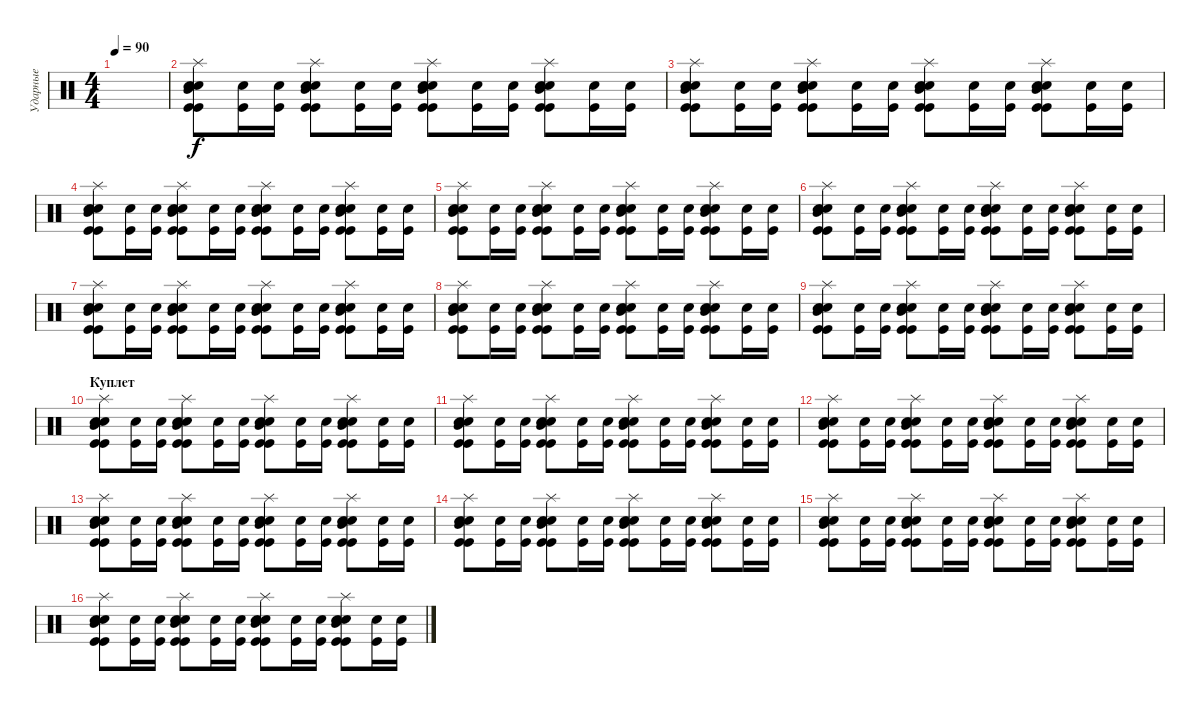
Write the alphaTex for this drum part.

\track ("Ударные" "Ударные") {instrument percussion}
\staff {score}
\articulation defaults
\ts (4 4)
\tempo 90
\clef neutral
\ks c
|
("Kick (hit)" "Kick (hit)" "Mid Tom (hit)" "Electric Snare (hit)" "Snare (hit) 2" "Splash (hit)").8 ("Snare (hit) 2" "Kick (hit)").16 ("Snare (hit) 2" "Kick (hit)").16 ("Kick (hit)" "Kick (hit)" "Mid Tom (hit)" "Electric Snare (hit)" "Snare (hit) 2" "Splash (hit)").8 ("Snare (hit) 2" "Kick (hit)").16 ("Snare (hit) 2" "Kick (hit)").16 ("Kick (hit)" "Kick (hit)" "Mid Tom (hit)" "Electric Snare (hit)" "Snare (hit) 2" "Splash (hit)").8 ("Snare (hit) 2" "Kick (hit)").16 ("Snare (hit) 2" "Kick (hit)").16 ("Kick (hit)" "Kick (hit)" "Mid Tom (hit)" "Electric Snare (hit)" "Snare (hit) 2" "Splash (hit)").8 ("Snare (hit) 2" "Kick (hit)").16 ("Snare (hit) 2" "Kick (hit)").16 |
("Kick (hit)" "Kick (hit)" "Mid Tom (hit)" "Electric Snare (hit)" "Snare (hit) 2" "Splash (hit)").8 ("Snare (hit) 2" "Kick (hit)").16 ("Snare (hit) 2" "Kick (hit)").16 ("Kick (hit)" "Kick (hit)" "Mid Tom (hit)" "Electric Snare (hit)" "Snare (hit) 2" "Splash (hit)").8 ("Snare (hit) 2" "Kick (hit)").16 ("Snare (hit) 2" "Kick (hit)").16 ("Kick (hit)" "Kick (hit)" "Mid Tom (hit)" "Electric Snare (hit)" "Snare (hit) 2" "Splash (hit)").8 ("Snare (hit) 2" "Kick (hit)").16 ("Snare (hit) 2" "Kick (hit)").16 ("Kick (hit)" "Kick (hit)" "Mid Tom (hit)" "Electric Snare (hit)" "Snare (hit) 2" "Splash (hit)").8 ("Snare (hit) 2" "Kick (hit)").16 ("Snare (hit) 2" "Kick (hit)").16 |
("Kick (hit)" "Kick (hit)" "Mid Tom (hit)" "Electric Snare (hit)" "Snare (hit) 2" "Splash (hit)").8 ("Snare (hit) 2" "Kick (hit)").16 ("Snare (hit) 2" "Kick (hit)").16 ("Kick (hit)" "Kick (hit)" "Mid Tom (hit)" "Electric Snare (hit)" "Snare (hit) 2" "Splash (hit)").8 ("Snare (hit) 2" "Kick (hit)").16 ("Snare (hit) 2" "Kick (hit)").16 ("Kick (hit)" "Kick (hit)" "Mid Tom (hit)" "Electric Snare (hit)" "Snare (hit) 2" "Splash (hit)").8 ("Snare (hit) 2" "Kick (hit)").16 ("Snare (hit) 2" "Kick (hit)").16 ("Kick (hit)" "Kick (hit)" "Mid Tom (hit)" "Electric Snare (hit)" "Snare (hit) 2" "Splash (hit)").8 ("Snare (hit) 2" "Kick (hit)").16 ("Snare (hit) 2" "Kick (hit)").16 |
("Kick (hit)" "Kick (hit)" "Mid Tom (hit)" "Electric Snare (hit)" "Snare (hit) 2" "Splash (hit)").8 ("Snare (hit) 2" "Kick (hit)").16 ("Snare (hit) 2" "Kick (hit)").16 ("Kick (hit)" "Kick (hit)" "Mid Tom (hit)" "Electric Snare (hit)" "Snare (hit) 2" "Splash (hit)").8 ("Snare (hit) 2" "Kick (hit)").16 ("Snare (hit) 2" "Kick (hit)").16 ("Kick (hit)" "Kick (hit)" "Mid Tom (hit)" "Electric Snare (hit)" "Snare (hit) 2" "Splash (hit)").8 ("Snare (hit) 2" "Kick (hit)").16 ("Snare (hit) 2" "Kick (hit)").16 ("Kick (hit)" "Kick (hit)" "Mid Tom (hit)" "Electric Snare (hit)" "Snare (hit) 2" "Splash (hit)").8 ("Snare (hit) 2" "Kick (hit)").16 ("Snare (hit) 2" "Kick (hit)").16 |
("Kick (hit)" "Kick (hit)" "Mid Tom (hit)" "Electric Snare (hit)" "Snare (hit) 2" "Splash (hit)").8 ("Snare (hit) 2" "Kick (hit)").16 ("Snare (hit) 2" "Kick (hit)").16 ("Kick (hit)" "Kick (hit)" "Mid Tom (hit)" "Electric Snare (hit)" "Snare (hit) 2" "Splash (hit)").8 ("Snare (hit) 2" "Kick (hit)").16 ("Snare (hit) 2" "Kick (hit)").16 ("Kick (hit)" "Kick (hit)" "Mid Tom (hit)" "Electric Snare (hit)" "Snare (hit) 2" "Splash (hit)").8 ("Snare (hit) 2" "Kick (hit)").16 ("Snare (hit) 2" "Kick (hit)").16 ("Kick (hit)" "Kick (hit)" "Mid Tom (hit)" "Electric Snare (hit)" "Snare (hit) 2" "Splash (hit)").8 ("Snare (hit) 2" "Kick (hit)").16 ("Snare (hit) 2" "Kick (hit)").16 |
("Kick (hit)" "Kick (hit)" "Mid Tom (hit)" "Electric Snare (hit)" "Snare (hit) 2" "Splash (hit)").8 ("Snare (hit) 2" "Kick (hit)").16 ("Snare (hit) 2" "Kick (hit)").16 ("Kick (hit)" "Kick (hit)" "Mid Tom (hit)" "Electric Snare (hit)" "Snare (hit) 2" "Splash (hit)").8 ("Snare (hit) 2" "Kick (hit)").16 ("Snare (hit) 2" "Kick (hit)").16 ("Kick (hit)" "Kick (hit)" "Mid Tom (hit)" "Electric Snare (hit)" "Snare (hit) 2" "Splash (hit)").8 ("Snare (hit) 2" "Kick (hit)").16 ("Snare (hit) 2" "Kick (hit)").16 ("Kick (hit)" "Kick (hit)" "Mid Tom (hit)" "Electric Snare (hit)" "Snare (hit) 2" "Splash (hit)").8 ("Snare (hit) 2" "Kick (hit)").16 ("Snare (hit) 2" "Kick (hit)").16 |
("Kick (hit)" "Kick (hit)" "Mid Tom (hit)" "Electric Snare (hit)" "Snare (hit) 2" "Splash (hit)").8 ("Snare (hit) 2" "Kick (hit)").16 ("Snare (hit) 2" "Kick (hit)").16 ("Kick (hit)" "Kick (hit)" "Mid Tom (hit)" "Electric Snare (hit)" "Snare (hit) 2" "Splash (hit)").8 ("Snare (hit) 2" "Kick (hit)").16 ("Snare (hit) 2" "Kick (hit)").16 ("Kick (hit)" "Kick (hit)" "Mid Tom (hit)" "Electric Snare (hit)" "Snare (hit) 2" "Splash (hit)").8 ("Snare (hit) 2" "Kick (hit)").16 ("Snare (hit) 2" "Kick (hit)").16 ("Kick (hit)" "Kick (hit)" "Mid Tom (hit)" "Electric Snare (hit)" "Snare (hit) 2" "Splash (hit)").8 ("Snare (hit) 2" "Kick (hit)").16 ("Snare (hit) 2" "Kick (hit)").16 |
("Kick (hit)" "Kick (hit)" "Mid Tom (hit)" "Electric Snare (hit)" "Snare (hit) 2" "Splash (hit)").8 ("Snare (hit) 2" "Kick (hit)").16 ("Snare (hit) 2" "Kick (hit)").16 ("Kick (hit)" "Kick (hit)" "Mid Tom (hit)" "Electric Snare (hit)" "Snare (hit) 2" "Splash (hit)").8 ("Snare (hit) 2" "Kick (hit)").16 ("Snare (hit) 2" "Kick (hit)").16 ("Kick (hit)" "Kick (hit)" "Mid Tom (hit)" "Electric Snare (hit)" "Snare (hit) 2" "Splash (hit)").8 ("Snare (hit) 2" "Kick (hit)").16 ("Snare (hit) 2" "Kick (hit)").16 ("Kick (hit)" "Kick (hit)" "Mid Tom (hit)" "Electric Snare (hit)" "Snare (hit) 2" "Splash (hit)").8 ("Snare (hit) 2" "Kick (hit)").16 ("Snare (hit) 2" "Kick (hit)").16 |
\section ("" "Куплет")
("Kick (hit)" "Kick (hit)" "Mid Tom (hit)" "Electric Snare (hit)" "Snare (hit) 2" "Splash (hit)").8 ("Snare (hit) 2" "Kick (hit)").16 ("Snare (hit) 2" "Kick (hit)").16 ("Kick (hit)" "Kick (hit)" "Mid Tom (hit)" "Electric Snare (hit)" "Snare (hit) 2" "Splash (hit)").8 ("Snare (hit) 2" "Kick (hit)").16 ("Snare (hit) 2" "Kick (hit)").16 ("Kick (hit)" "Kick (hit)" "Mid Tom (hit)" "Electric Snare (hit)" "Snare (hit) 2" "Splash (hit)").8 ("Snare (hit) 2" "Kick (hit)").16 ("Snare (hit) 2" "Kick (hit)").16 ("Kick (hit)" "Kick (hit)" "Mid Tom (hit)" "Electric Snare (hit)" "Snare (hit) 2" "Splash (hit)").8 ("Snare (hit) 2" "Kick (hit)").16 ("Snare (hit) 2" "Kick (hit)").16 |
("Kick (hit)" "Kick (hit)" "Mid Tom (hit)" "Electric Snare (hit)" "Snare (hit) 2" "Splash (hit)").8 ("Snare (hit) 2" "Kick (hit)").16 ("Snare (hit) 2" "Kick (hit)").16 ("Kick (hit)" "Kick (hit)" "Mid Tom (hit)" "Electric Snare (hit)" "Snare (hit) 2" "Splash (hit)").8 ("Snare (hit) 2" "Kick (hit)").16 ("Snare (hit) 2" "Kick (hit)").16 ("Kick (hit)" "Kick (hit)" "Mid Tom (hit)" "Electric Snare (hit)" "Snare (hit) 2" "Splash (hit)").8 ("Snare (hit) 2" "Kick (hit)").16 ("Snare (hit) 2" "Kick (hit)").16 ("Kick (hit)" "Kick (hit)" "Mid Tom (hit)" "Electric Snare (hit)" "Snare (hit) 2" "Splash (hit)").8 ("Snare (hit) 2" "Kick (hit)").16 ("Snare (hit) 2" "Kick (hit)").16 |
("Kick (hit)" "Kick (hit)" "Mid Tom (hit)" "Electric Snare (hit)" "Snare (hit) 2" "Splash (hit)").8 ("Snare (hit) 2" "Kick (hit)").16 ("Snare (hit) 2" "Kick (hit)").16 ("Kick (hit)" "Kick (hit)" "Mid Tom (hit)" "Electric Snare (hit)" "Snare (hit) 2" "Splash (hit)").8 ("Snare (hit) 2" "Kick (hit)").16 ("Snare (hit) 2" "Kick (hit)").16 ("Kick (hit)" "Kick (hit)" "Mid Tom (hit)" "Electric Snare (hit)" "Snare (hit) 2" "Splash (hit)").8 ("Snare (hit) 2" "Kick (hit)").16 ("Snare (hit) 2" "Kick (hit)").16 ("Kick (hit)" "Kick (hit)" "Mid Tom (hit)" "Electric Snare (hit)" "Snare (hit) 2" "Splash (hit)").8 ("Snare (hit) 2" "Kick (hit)").16 ("Snare (hit) 2" "Kick (hit)").16 |
("Kick (hit)" "Kick (hit)" "Mid Tom (hit)" "Electric Snare (hit)" "Snare (hit) 2" "Splash (hit)").8 ("Snare (hit) 2" "Kick (hit)").16 ("Snare (hit) 2" "Kick (hit)").16 ("Kick (hit)" "Kick (hit)" "Mid Tom (hit)" "Electric Snare (hit)" "Snare (hit) 2" "Splash (hit)").8 ("Snare (hit) 2" "Kick (hit)").16 ("Snare (hit) 2" "Kick (hit)").16 ("Kick (hit)" "Kick (hit)" "Mid Tom (hit)" "Electric Snare (hit)" "Snare (hit) 2" "Splash (hit)").8 ("Snare (hit) 2" "Kick (hit)").16 ("Snare (hit) 2" "Kick (hit)").16 ("Kick (hit)" "Kick (hit)" "Mid Tom (hit)" "Electric Snare (hit)" "Snare (hit) 2" "Splash (hit)").8 ("Snare (hit) 2" "Kick (hit)").16 ("Snare (hit) 2" "Kick (hit)").16 |
("Kick (hit)" "Kick (hit)" "Mid Tom (hit)" "Electric Snare (hit)" "Snare (hit) 2" "Splash (hit)").8 ("Snare (hit) 2" "Kick (hit)").16 ("Snare (hit) 2" "Kick (hit)").16 ("Kick (hit)" "Kick (hit)" "Mid Tom (hit)" "Electric Snare (hit)" "Snare (hit) 2" "Splash (hit)").8 ("Snare (hit) 2" "Kick (hit)").16 ("Snare (hit) 2" "Kick (hit)").16 ("Kick (hit)" "Kick (hit)" "Mid Tom (hit)" "Electric Snare (hit)" "Snare (hit) 2" "Splash (hit)").8 ("Snare (hit) 2" "Kick (hit)").16 ("Snare (hit) 2" "Kick (hit)").16 ("Kick (hit)" "Kick (hit)" "Mid Tom (hit)" "Electric Snare (hit)" "Snare (hit) 2" "Splash (hit)").8 ("Snare (hit) 2" "Kick (hit)").16 ("Snare (hit) 2" "Kick (hit)").16 |
("Kick (hit)" "Kick (hit)" "Mid Tom (hit)" "Electric Snare (hit)" "Snare (hit) 2" "Splash (hit)").8 ("Snare (hit) 2" "Kick (hit)").16 ("Snare (hit) 2" "Kick (hit)").16 ("Kick (hit)" "Kick (hit)" "Mid Tom (hit)" "Electric Snare (hit)" "Snare (hit) 2" "Splash (hit)").8 ("Snare (hit) 2" "Kick (hit)").16 ("Snare (hit) 2" "Kick (hit)").16 ("Kick (hit)" "Kick (hit)" "Mid Tom (hit)" "Electric Snare (hit)" "Snare (hit) 2" "Splash (hit)").8 ("Snare (hit) 2" "Kick (hit)").16 ("Snare (hit) 2" "Kick (hit)").16 ("Kick (hit)" "Kick (hit)" "Mid Tom (hit)" "Electric Snare (hit)" "Snare (hit) 2" "Splash (hit)").8 ("Snare (hit) 2" "Kick (hit)").16 ("Snare (hit) 2" "Kick (hit)").16 |
("Kick (hit)" "Kick (hit)" "Mid Tom (hit)" "Electric Snare (hit)" "Snare (hit) 2" "Splash (hit)").8 ("Snare (hit) 2" "Kick (hit)").16 ("Snare (hit) 2" "Kick (hit)").16 ("Kick (hit)" "Kick (hit)" "Mid Tom (hit)" "Electric Snare (hit)" "Snare (hit) 2" "Splash (hit)").8 ("Snare (hit) 2" "Kick (hit)").16 ("Snare (hit) 2" "Kick (hit)").16 ("Kick (hit)" "Kick (hit)" "Mid Tom (hit)" "Electric Snare (hit)" "Snare (hit) 2" "Splash (hit)").8 ("Snare (hit) 2" "Kick (hit)").16 ("Snare (hit) 2" "Kick (hit)").16 ("Kick (hit)" "Kick (hit)" "Mid Tom (hit)" "Electric Snare (hit)" "Snare (hit) 2" "Splash (hit)").8 ("Snare (hit) 2" "Kick (hit)").16 ("Snare (hit) 2" "Kick (hit)").16
